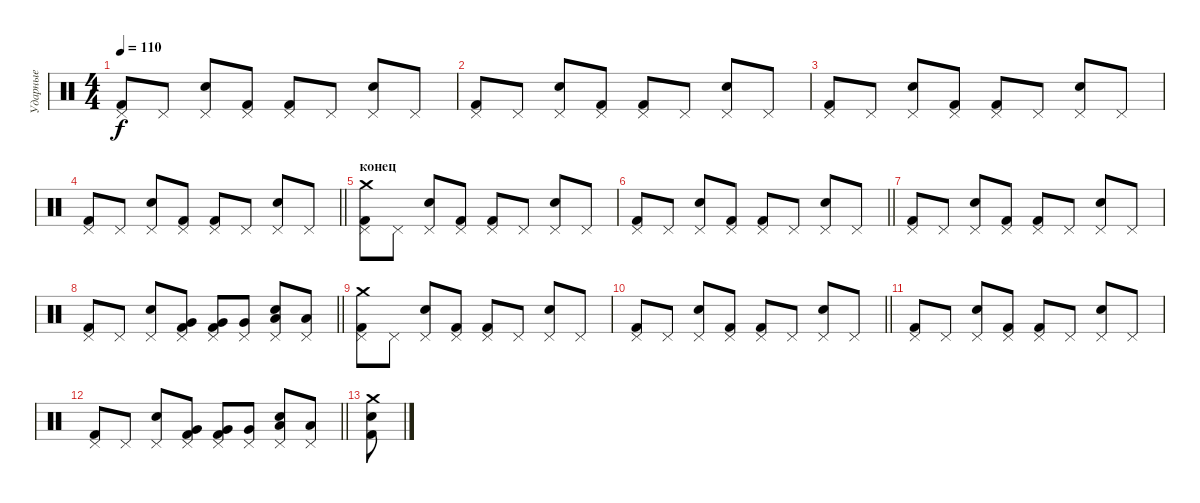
\track ("Ударные" "Ударные") {instrument percussion}
\staff {score}
\articulation defaults
\ts (4 4)
\tempo 110
\clef neutral
\ks c
("Pedal Hi-Hat (hit)" "Kick (hit) 2").8{dy f} "Pedal Hi-Hat (hit)".8 ("Pedal Hi-Hat (hit)" "Electric Snare (hit)").8 ("Pedal Hi-Hat (hit)" "Kick (hit) 2").8 ("Pedal Hi-Hat (hit)" "Kick (hit) 2").8 "Pedal Hi-Hat (hit)".8 ("Pedal Hi-Hat (hit)" "Electric Snare (hit)").8 "Pedal Hi-Hat (hit)".8 |
("Pedal Hi-Hat (hit)" "Kick (hit) 2").8 "Pedal Hi-Hat (hit)".8 ("Pedal Hi-Hat (hit)" "Electric Snare (hit)").8 ("Pedal Hi-Hat (hit)" "Kick (hit) 2").8 ("Pedal Hi-Hat (hit)" "Kick (hit) 2").8 "Pedal Hi-Hat (hit)".8 ("Pedal Hi-Hat (hit)" "Electric Snare (hit)").8 "Pedal Hi-Hat (hit)".8 |
("Pedal Hi-Hat (hit)" "Kick (hit) 2").8 "Pedal Hi-Hat (hit)".8 ("Pedal Hi-Hat (hit)" "Electric Snare (hit)").8 ("Pedal Hi-Hat (hit)" "Kick (hit) 2").8 ("Pedal Hi-Hat (hit)" "Kick (hit) 2").8 "Pedal Hi-Hat (hit)".8 ("Pedal Hi-Hat (hit)" "Electric Snare (hit)").8 "Pedal Hi-Hat (hit)".8 |
\barLineRight lightlight
("Pedal Hi-Hat (hit)" "Kick (hit) 2").8 "Pedal Hi-Hat (hit)".8 ("Pedal Hi-Hat (hit)" "Electric Snare (hit)").8 ("Pedal Hi-Hat (hit)" "Kick (hit) 2").8 ("Pedal Hi-Hat (hit)" "Kick (hit) 2").8 "Pedal Hi-Hat (hit)".8 ("Pedal Hi-Hat (hit)" "Electric Snare (hit)").8 "Pedal Hi-Hat (hit)".8 |
\section ("" "конец")
("Crash medium (hit)" "Pedal Hi-Hat (hit)" "Kick (hit) 2").8 "Pedal Hi-Hat (hit)".8 ("Pedal Hi-Hat (hit)" "Electric Snare (hit)").8 ("Pedal Hi-Hat (hit)" "Kick (hit) 2").8 ("Pedal Hi-Hat (hit)" "Kick (hit) 2").8 "Pedal Hi-Hat (hit)".8 ("Pedal Hi-Hat (hit)" "Electric Snare (hit)").8 "Pedal Hi-Hat (hit)".8 |
\barLineRight lightlight
("Pedal Hi-Hat (hit)" "Kick (hit) 2").8 "Pedal Hi-Hat (hit)".8 ("Pedal Hi-Hat (hit)" "Electric Snare (hit)").8 ("Pedal Hi-Hat (hit)" "Kick (hit) 2").8 ("Pedal Hi-Hat (hit)" "Kick (hit) 2").8 "Pedal Hi-Hat (hit)".8 ("Pedal Hi-Hat (hit)" "Electric Snare (hit)").8 "Pedal Hi-Hat (hit)".8 |
("Pedal Hi-Hat (hit)" "Kick (hit) 2").8 "Pedal Hi-Hat (hit)".8 ("Pedal Hi-Hat (hit)" "Electric Snare (hit)").8 ("Pedal Hi-Hat (hit)" "Kick (hit) 2").8 ("Pedal Hi-Hat (hit)" "Kick (hit) 2").8 "Pedal Hi-Hat (hit)".8 ("Pedal Hi-Hat (hit)" "Electric Snare (hit)").8 "Pedal Hi-Hat (hit)".8 |
\barLineRight lightlight
("Pedal Hi-Hat (hit)" "Kick (hit) 2").8 "Pedal Hi-Hat (hit)".8 ("Pedal Hi-Hat (hit)" "Electric Snare (hit)").8 ("Pedal Hi-Hat (hit)" "Very Low Tom (hit)" "Kick (hit) 2").8 ("Pedal Hi-Hat (hit)" "Very Low Tom (hit)" "Kick (hit) 2").8 ("Pedal Hi-Hat (hit)" "Very Low Tom (hit)").8 ("Pedal Hi-Hat (hit)" "Low Floor Tom (hit)" "Electric Snare (hit)").8 ("Pedal Hi-Hat (hit)" "Low Floor Tom (hit)").8 |
("Crash medium (hit)" "Pedal Hi-Hat (hit)" "Kick (hit) 2").8 "Pedal Hi-Hat (hit)".8 ("Pedal Hi-Hat (hit)" "Electric Snare (hit)").8 ("Pedal Hi-Hat (hit)" "Kick (hit) 2").8 ("Pedal Hi-Hat (hit)" "Kick (hit) 2").8 "Pedal Hi-Hat (hit)".8 ("Pedal Hi-Hat (hit)" "Electric Snare (hit)").8 "Pedal Hi-Hat (hit)".8 |
\barLineRight lightlight
("Pedal Hi-Hat (hit)" "Kick (hit) 2").8 "Pedal Hi-Hat (hit)".8 ("Pedal Hi-Hat (hit)" "Electric Snare (hit)").8 ("Pedal Hi-Hat (hit)" "Kick (hit) 2").8 ("Pedal Hi-Hat (hit)" "Kick (hit) 2").8 "Pedal Hi-Hat (hit)".8 ("Pedal Hi-Hat (hit)" "Electric Snare (hit)").8 "Pedal Hi-Hat (hit)".8 |
("Pedal Hi-Hat (hit)" "Kick (hit) 2").8 "Pedal Hi-Hat (hit)".8 ("Pedal Hi-Hat (hit)" "Electric Snare (hit)").8 ("Pedal Hi-Hat (hit)" "Kick (hit) 2").8 ("Pedal Hi-Hat (hit)" "Kick (hit) 2").8 "Pedal Hi-Hat (hit)".8 ("Pedal Hi-Hat (hit)" "Electric Snare (hit)").8 "Pedal Hi-Hat (hit)".8 |
\barLineRight lightlight
("Pedal Hi-Hat (hit)" "Kick (hit) 2").8 "Pedal Hi-Hat (hit)".8 ("Pedal Hi-Hat (hit)" "Electric Snare (hit)").8 ("Pedal Hi-Hat (hit)" "Very Low Tom (hit)" "Kick (hit) 2").8 ("Pedal Hi-Hat (hit)" "Very Low Tom (hit)" "Kick (hit) 2").8 ("Pedal Hi-Hat (hit)" "Very Low Tom (hit)").8 ("Pedal Hi-Hat (hit)" "Low Floor Tom (hit)" "Electric Snare (hit)").8 ("Pedal Hi-Hat (hit)" "Low Floor Tom (hit)").8 |
("Crash medium (hit)" "Electric Snare (hit)" "Kick (hit) 2").8
